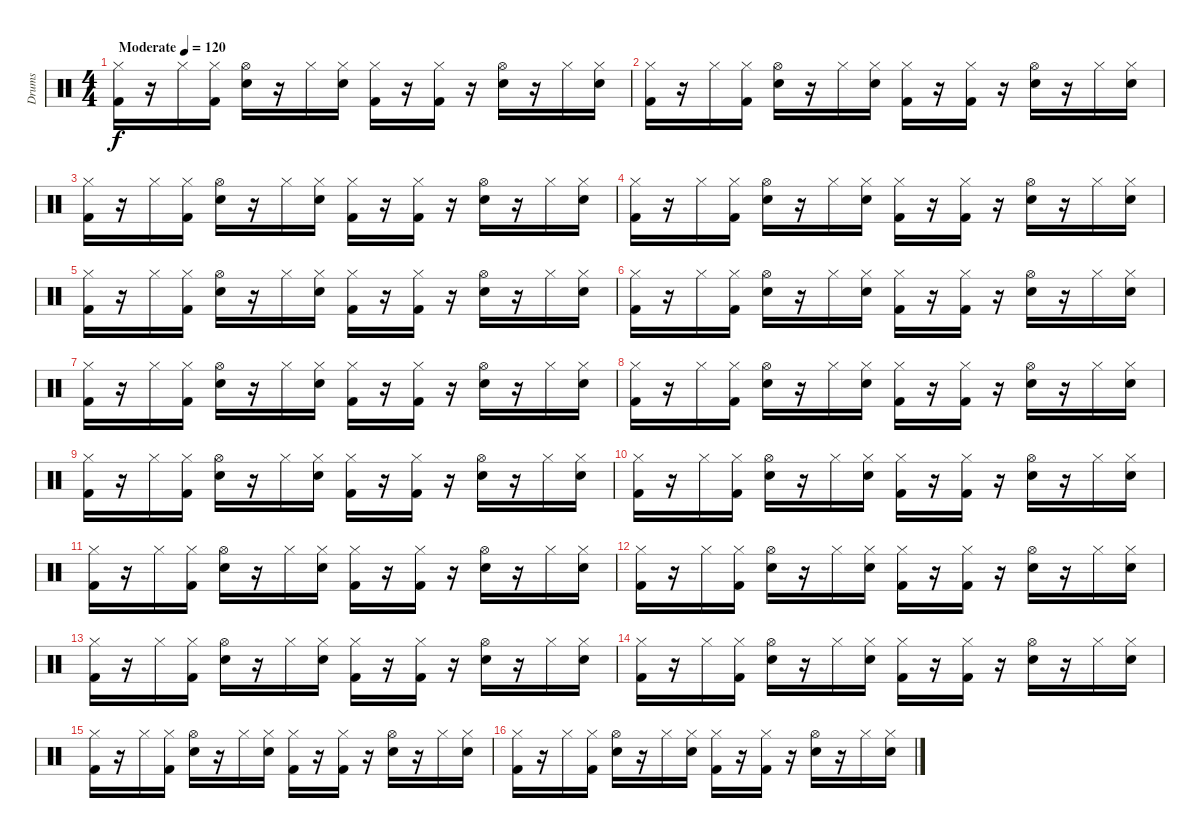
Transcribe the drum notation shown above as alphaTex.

\track ("Drums" "Drums") {instrument percussion}
\staff {score}
\articulation defaults
\ts (4 4)
\tempo (120 "Moderate")
\clef neutral
\ks c
("Hi-Hat (closed)" "Kick (hit) 2").16{dy f} r.16 "Hi-Hat (closed)".16 ("Hi-Hat (closed)" "Kick (hit) 2").16 ("Hi-Hat (open)" "Snare (hit) 2").16 r.16 "Hi-Hat (closed)".16 ("Hi-Hat (closed)" "Snare (hit) 2").16 ("Hi-Hat (closed)" "Kick (hit) 2").16 r.16 ("Hi-Hat (closed)" "Kick (hit) 2").16 r.16 ("Hi-Hat (open)" "Snare (hit) 2").16 r.16 "Hi-Hat (closed)".16 ("Hi-Hat (closed)" "Snare (hit) 2").16 |
("Hi-Hat (closed)" "Kick (hit) 2").16 r.16 "Hi-Hat (closed)".16 ("Hi-Hat (closed)" "Kick (hit) 2").16 ("Hi-Hat (open)" "Snare (hit) 2").16 r.16 "Hi-Hat (closed)".16 ("Hi-Hat (closed)" "Snare (hit) 2").16 ("Hi-Hat (closed)" "Kick (hit) 2").16 r.16 ("Hi-Hat (closed)" "Kick (hit) 2").16 r.16 ("Hi-Hat (open)" "Snare (hit) 2").16 r.16 "Hi-Hat (closed)".16 ("Hi-Hat (closed)" "Snare (hit) 2").16 |
("Hi-Hat (closed)" "Kick (hit) 2").16 r.16 "Hi-Hat (closed)".16 ("Hi-Hat (closed)" "Kick (hit) 2").16 ("Hi-Hat (open)" "Snare (hit) 2").16 r.16 "Hi-Hat (closed)".16 ("Hi-Hat (closed)" "Snare (hit) 2").16 ("Hi-Hat (closed)" "Kick (hit) 2").16 r.16 ("Hi-Hat (closed)" "Kick (hit) 2").16 r.16 ("Hi-Hat (open)" "Snare (hit) 2").16 r.16 "Hi-Hat (closed)".16 ("Hi-Hat (closed)" "Snare (hit) 2").16 |
("Hi-Hat (closed)" "Kick (hit) 2").16 r.16 "Hi-Hat (closed)".16 ("Hi-Hat (closed)" "Kick (hit) 2").16 ("Hi-Hat (open)" "Snare (hit) 2").16 r.16 "Hi-Hat (closed)".16 ("Hi-Hat (closed)" "Snare (hit) 2").16 ("Hi-Hat (closed)" "Kick (hit) 2").16 r.16 ("Hi-Hat (closed)" "Kick (hit) 2").16 r.16 ("Hi-Hat (open)" "Snare (hit) 2").16 r.16 "Hi-Hat (closed)".16 ("Hi-Hat (closed)" "Snare (hit) 2").16 |
("Hi-Hat (closed)" "Kick (hit) 2").16 r.16 "Hi-Hat (closed)".16 ("Hi-Hat (closed)" "Kick (hit) 2").16 ("Hi-Hat (open)" "Snare (hit) 2").16 r.16 "Hi-Hat (closed)".16 ("Hi-Hat (closed)" "Snare (hit) 2").16 ("Hi-Hat (closed)" "Kick (hit) 2").16 r.16 ("Hi-Hat (closed)" "Kick (hit) 2").16 r.16 ("Hi-Hat (open)" "Snare (hit) 2").16 r.16 "Hi-Hat (closed)".16 ("Hi-Hat (closed)" "Snare (hit) 2").16 |
("Hi-Hat (closed)" "Kick (hit) 2").16 r.16 "Hi-Hat (closed)".16 ("Hi-Hat (closed)" "Kick (hit) 2").16 ("Hi-Hat (open)" "Snare (hit) 2").16 r.16 "Hi-Hat (closed)".16 ("Hi-Hat (closed)" "Snare (hit) 2").16 ("Hi-Hat (closed)" "Kick (hit) 2").16 r.16 ("Hi-Hat (closed)" "Kick (hit) 2").16 r.16 ("Hi-Hat (open)" "Snare (hit) 2").16 r.16 "Hi-Hat (closed)".16 ("Hi-Hat (closed)" "Snare (hit) 2").16 |
("Hi-Hat (closed)" "Kick (hit) 2").16 r.16 "Hi-Hat (closed)".16 ("Hi-Hat (closed)" "Kick (hit) 2").16 ("Hi-Hat (open)" "Snare (hit) 2").16 r.16 "Hi-Hat (closed)".16 ("Hi-Hat (closed)" "Snare (hit) 2").16 ("Hi-Hat (closed)" "Kick (hit) 2").16 r.16 ("Hi-Hat (closed)" "Kick (hit) 2").16 r.16 ("Hi-Hat (open)" "Snare (hit) 2").16 r.16 "Hi-Hat (closed)".16 ("Hi-Hat (closed)" "Snare (hit) 2").16 |
("Hi-Hat (closed)" "Kick (hit) 2").16 r.16 "Hi-Hat (closed)".16 ("Hi-Hat (closed)" "Kick (hit) 2").16 ("Hi-Hat (open)" "Snare (hit) 2").16 r.16 "Hi-Hat (closed)".16 ("Hi-Hat (closed)" "Snare (hit) 2").16 ("Hi-Hat (closed)" "Kick (hit) 2").16 r.16 ("Hi-Hat (closed)" "Kick (hit) 2").16 r.16 ("Hi-Hat (open)" "Snare (hit) 2").16 r.16 "Hi-Hat (closed)".16 ("Hi-Hat (closed)" "Snare (hit) 2").16 |
("Hi-Hat (closed)" "Kick (hit) 2").16 r.16 "Hi-Hat (closed)".16 ("Hi-Hat (closed)" "Kick (hit) 2").16 ("Hi-Hat (open)" "Snare (hit) 2").16 r.16 "Hi-Hat (closed)".16 ("Hi-Hat (closed)" "Snare (hit) 2").16 ("Hi-Hat (closed)" "Kick (hit) 2").16 r.16 ("Hi-Hat (closed)" "Kick (hit) 2").16 r.16 ("Hi-Hat (open)" "Snare (hit) 2").16 r.16 "Hi-Hat (closed)".16 ("Hi-Hat (closed)" "Snare (hit) 2").16 |
("Hi-Hat (closed)" "Kick (hit) 2").16 r.16 "Hi-Hat (closed)".16 ("Hi-Hat (closed)" "Kick (hit) 2").16 ("Hi-Hat (open)" "Snare (hit) 2").16 r.16 "Hi-Hat (closed)".16 ("Hi-Hat (closed)" "Snare (hit) 2").16 ("Hi-Hat (closed)" "Kick (hit) 2").16 r.16 ("Hi-Hat (closed)" "Kick (hit) 2").16 r.16 ("Hi-Hat (open)" "Snare (hit) 2").16 r.16 "Hi-Hat (closed)".16 ("Hi-Hat (closed)" "Snare (hit) 2").16 |
("Hi-Hat (closed)" "Kick (hit) 2").16 r.16 "Hi-Hat (closed)".16 ("Hi-Hat (closed)" "Kick (hit) 2").16 ("Hi-Hat (open)" "Snare (hit) 2").16 r.16 "Hi-Hat (closed)".16 ("Hi-Hat (closed)" "Snare (hit) 2").16 ("Hi-Hat (closed)" "Kick (hit) 2").16 r.16 ("Hi-Hat (closed)" "Kick (hit) 2").16 r.16 ("Hi-Hat (open)" "Snare (hit) 2").16 r.16 "Hi-Hat (closed)".16 ("Hi-Hat (closed)" "Snare (hit) 2").16 |
("Hi-Hat (closed)" "Kick (hit) 2").16 r.16 "Hi-Hat (closed)".16 ("Hi-Hat (closed)" "Kick (hit) 2").16 ("Hi-Hat (open)" "Snare (hit) 2").16 r.16 "Hi-Hat (closed)".16 ("Hi-Hat (closed)" "Snare (hit) 2").16 ("Hi-Hat (closed)" "Kick (hit) 2").16 r.16 ("Hi-Hat (closed)" "Kick (hit) 2").16 r.16 ("Hi-Hat (open)" "Snare (hit) 2").16 r.16 "Hi-Hat (closed)".16 ("Hi-Hat (closed)" "Snare (hit) 2").16 |
("Hi-Hat (closed)" "Kick (hit) 2").16 r.16 "Hi-Hat (closed)".16 ("Hi-Hat (closed)" "Kick (hit) 2").16 ("Hi-Hat (open)" "Snare (hit) 2").16 r.16 "Hi-Hat (closed)".16 ("Hi-Hat (closed)" "Snare (hit) 2").16 ("Hi-Hat (closed)" "Kick (hit) 2").16 r.16 ("Hi-Hat (closed)" "Kick (hit) 2").16 r.16 ("Hi-Hat (open)" "Snare (hit) 2").16 r.16 "Hi-Hat (closed)".16 ("Hi-Hat (closed)" "Snare (hit) 2").16 |
("Hi-Hat (closed)" "Kick (hit) 2").16 r.16 "Hi-Hat (closed)".16 ("Hi-Hat (closed)" "Kick (hit) 2").16 ("Hi-Hat (open)" "Snare (hit) 2").16 r.16 "Hi-Hat (closed)".16 ("Hi-Hat (closed)" "Snare (hit) 2").16 ("Hi-Hat (closed)" "Kick (hit) 2").16 r.16 ("Hi-Hat (closed)" "Kick (hit) 2").16 r.16 ("Hi-Hat (open)" "Snare (hit) 2").16 r.16 "Hi-Hat (closed)".16 ("Hi-Hat (closed)" "Snare (hit) 2").16 |
("Hi-Hat (closed)" "Kick (hit) 2").16 r.16 "Hi-Hat (closed)".16 ("Hi-Hat (closed)" "Kick (hit) 2").16 ("Hi-Hat (open)" "Snare (hit) 2").16 r.16 "Hi-Hat (closed)".16 ("Hi-Hat (closed)" "Snare (hit) 2").16 ("Hi-Hat (closed)" "Kick (hit) 2").16 r.16 ("Hi-Hat (closed)" "Kick (hit) 2").16 r.16 ("Hi-Hat (open)" "Snare (hit) 2").16 r.16 "Hi-Hat (closed)".16 ("Hi-Hat (closed)" "Snare (hit) 2").16 |
("Hi-Hat (closed)" "Kick (hit) 2").16 r.16 "Hi-Hat (closed)".16 ("Hi-Hat (closed)" "Kick (hit) 2").16 ("Hi-Hat (open)" "Snare (hit) 2").16 r.16 "Hi-Hat (closed)".16 ("Hi-Hat (closed)" "Snare (hit) 2").16 ("Hi-Hat (closed)" "Kick (hit) 2").16 r.16 ("Hi-Hat (closed)" "Kick (hit) 2").16 r.16 ("Hi-Hat (open)" "Snare (hit) 2").16 r.16 "Hi-Hat (closed)".16 ("Hi-Hat (closed)" "Snare (hit) 2").16
